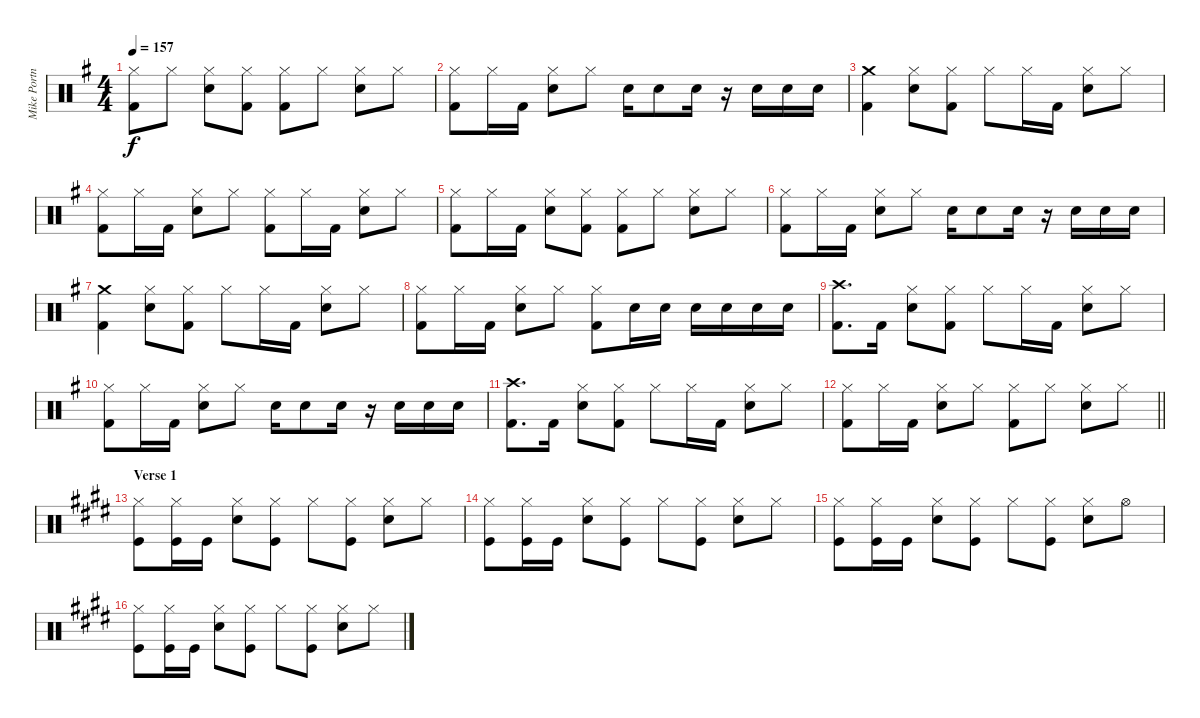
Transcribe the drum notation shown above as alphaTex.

\track ("Mike Portnoy" "Mike Portn") {instrument percussion}
\staff {score}
\articulation defaults
\ts (4 4)
\tempo 157
\clef neutral
\ks g
("Kick (hit) 2" "Hi-Hat (closed)").8{dy f} "Hi-Hat (closed)".8 ("Snare (hit) 2" "Hi-Hat (closed)").8 ("Kick (hit) 2" "Hi-Hat (closed)").8 ("Kick (hit) 2" "Hi-Hat (closed)").8 "Hi-Hat (closed)".8 ("Snare (hit) 2" "Hi-Hat (closed)").8 "Hi-Hat (closed)".8 |
("Kick (hit) 2" "Hi-Hat (closed)").8 "Hi-Hat (closed)".16 "Kick (hit) 2".16 ("Snare (hit) 2" "Hi-Hat (closed)").8 "Hi-Hat (closed)".8 "Snare (hit) 2".16 "Snare (hit) 2".8 "Snare (hit) 2".16 r.16 "Snare (hit) 2".16 "Snare (hit) 2".16 "Snare (hit) 2".16 |
("Kick (hit) 2" "Crash medium (hit)").4 ("Snare (hit) 2" "Hi-Hat (closed)").8 ("Kick (hit) 2" "Hi-Hat (closed)").8 "Hi-Hat (closed)".8 "Hi-Hat (closed)".16 "Kick (hit) 2".16 ("Snare (hit) 2" "Hi-Hat (closed)").8 "Hi-Hat (closed)".8 |
("Kick (hit) 2" "Hi-Hat (closed)").8 "Hi-Hat (closed)".16 "Kick (hit) 2".16 ("Snare (hit) 2" "Hi-Hat (closed)").8 "Hi-Hat (closed)".8 ("Kick (hit) 2" "Hi-Hat (closed)").8 "Hi-Hat (closed)".16 "Kick (hit) 2".16 ("Snare (hit) 2" "Hi-Hat (closed)").8 "Hi-Hat (closed)".8 |
("Kick (hit) 2" "Hi-Hat (closed)").8 "Hi-Hat (closed)".16 "Kick (hit) 2".16 ("Snare (hit) 2" "Hi-Hat (closed)").8 ("Kick (hit) 2" "Hi-Hat (closed)").8 ("Kick (hit) 2" "Hi-Hat (closed)").8 "Hi-Hat (closed)".8 ("Snare (hit) 2" "Hi-Hat (closed)").8 "Hi-Hat (closed)".8 |
("Kick (hit) 2" "Hi-Hat (closed)").8 "Hi-Hat (closed)".16 "Kick (hit) 2".16 ("Snare (hit) 2" "Hi-Hat (closed)").8 "Hi-Hat (closed)".8 "Snare (hit) 2".16 "Snare (hit) 2".8 "Snare (hit) 2".16 r.16 "Snare (hit) 2".16 "Snare (hit) 2".16 "Snare (hit) 2".16 |
("Kick (hit) 2" "Crash medium (hit)").4 ("Snare (hit) 2" "Hi-Hat (closed)").8 ("Kick (hit) 2" "Hi-Hat (closed)").8 "Hi-Hat (closed)".8 "Hi-Hat (closed)".16 "Kick (hit) 2".16 ("Snare (hit) 2" "Hi-Hat (closed)").8 "Hi-Hat (closed)".8 |
("Kick (hit) 2" "Hi-Hat (closed)").8 "Hi-Hat (closed)".16 "Kick (hit) 2".16 ("Snare (hit) 2" "Hi-Hat (closed)").8 "Hi-Hat (closed)".8 ("Kick (hit) 2" "Hi-Hat (closed)").8 "Snare (hit) 2".16 "Snare (hit) 2".16 "Snare (hit) 2".16 "Snare (hit) 2".16 "Snare (hit) 2".16 "Snare (hit) 2".16 |
("Kick (hit) 2" "Crash high (hit)").8{d} "Kick (hit) 2".16 ("Snare (hit) 2" "Hi-Hat (closed)").8 ("Kick (hit) 2" "Hi-Hat (closed)").8 "Hi-Hat (closed)".8 "Hi-Hat (closed)".16 "Kick (hit) 2".16 ("Snare (hit) 2" "Hi-Hat (closed)").8 "Hi-Hat (closed)".8 |
("Kick (hit) 2" "Hi-Hat (closed)").8 "Hi-Hat (closed)".16 "Kick (hit) 2".16 ("Snare (hit) 2" "Hi-Hat (closed)").8 "Hi-Hat (closed)".8 "Snare (hit) 2".16 "Snare (hit) 2".8 "Snare (hit) 2".16 r.16 "Snare (hit) 2".16 "Snare (hit) 2".16 "Snare (hit) 2".16 |
("Kick (hit) 2" "Crash high (hit)").8{d} "Kick (hit) 2".16 ("Snare (hit) 2" "Hi-Hat (closed)").8 ("Kick (hit) 2" "Hi-Hat (closed)").8 "Hi-Hat (closed)".8 "Hi-Hat (closed)".16 "Kick (hit) 2".16 ("Snare (hit) 2" "Hi-Hat (closed)").8 "Hi-Hat (closed)".8 |
\barLineRight lightlight
("Kick (hit) 2" "Hi-Hat (closed)").8 "Hi-Hat (closed)".16 "Kick (hit) 2".16 ("Snare (hit) 2" "Hi-Hat (closed)").8 "Hi-Hat (closed)".8 ("Kick (hit) 2" "Hi-Hat (closed)").8 "Hi-Hat (closed)".8 ("Snare (hit) 2" "Hi-Hat (closed)").8 "Hi-Hat (closed)".8 |
\section ("" "Verse 1")
\ks e
("Kick (hit)" "Hi-Hat (closed)").8 ("Kick (hit)" "Hi-Hat (closed)").16 "Kick (hit)".16 ("Snare (hit) 2" "Hi-Hat (closed)").8 ("Kick (hit)" "Hi-Hat (closed)").8 "Hi-Hat (closed)".8 ("Kick (hit)" "Hi-Hat (closed)").8 ("Snare (hit) 2" "Hi-Hat (closed)").8 "Hi-Hat (closed)".8 |
\ks c#minor
("Kick (hit)" "Hi-Hat (closed)").8 ("Kick (hit)" "Hi-Hat (closed)").16 "Kick (hit)".16 ("Snare (hit) 2" "Hi-Hat (closed)").8 ("Kick (hit)" "Hi-Hat (closed)").8 "Hi-Hat (closed)".8 ("Kick (hit)" "Hi-Hat (closed)").8 ("Snare (hit) 2" "Hi-Hat (closed)").8 "Hi-Hat (closed)".8 |
("Kick (hit)" "Hi-Hat (closed)").8 ("Kick (hit)" "Hi-Hat (closed)").16 "Kick (hit)".16 ("Snare (hit) 2" "Hi-Hat (closed)").8 ("Kick (hit)" "Hi-Hat (closed)").8 "Hi-Hat (closed)".8 ("Kick (hit)" "Hi-Hat (closed)").8 ("Snare (hit) 2" "Hi-Hat (closed)").8 "Hi-Hat (open)".8 |
("Kick (hit)" "Hi-Hat (closed)").8 ("Kick (hit)" "Hi-Hat (closed)").16 "Kick (hit)".16 ("Snare (hit) 2" "Hi-Hat (closed)").8 ("Kick (hit)" "Hi-Hat (closed)").8 "Hi-Hat (closed)".8 ("Kick (hit)" "Hi-Hat (closed)").8 ("Snare (hit) 2" "Hi-Hat (closed)").8 "Hi-Hat (closed)".8
